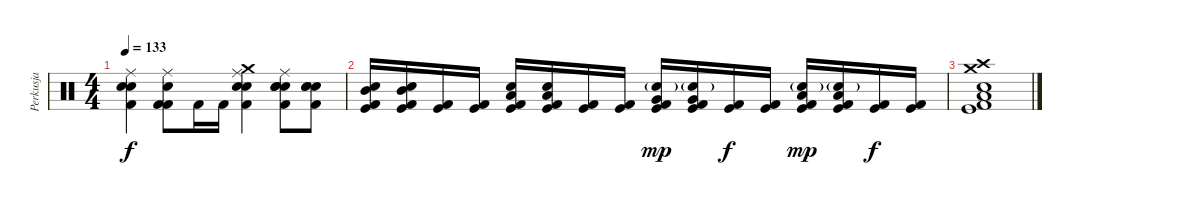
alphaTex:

\track ("Perkusja" "Perkusja") {instrument percussion}
\staff {score}
\articulation defaults
\ts (4 4)
\tempo 133
\clef neutral
\ks c
("Ride (middle)" "Kick (hit) 2" "Electric Snare (hit)" "Electric Snare (hit)").4{dy f} ("Ride (middle)" "Snare (hit) 2" "Kick (hit) 2" "Kick (hit) 2").8 "Kick (hit) 2".16 "Kick (hit) 2".16 ("Ride (middle)" "Crash medium (hit)" "Kick (hit) 2" "Electric Snare (hit)" "Electric Snare (hit)").4 ("Ride (middle)" "Snare (hit) 2" "Electric Snare (hit)" "Kick (hit) 2" "Electric Snare (hit)").8 ("Snare (hit) 2" "Electric Snare (hit)" "Kick (hit) 2" "Electric Snare (hit)").8 |
("Electric Snare (hit)" "Mid Tom (hit)" "Kick (hit) 2" "Kick (hit)").16 ("Electric Snare (hit)" "Mid Tom (hit)" "Kick (hit) 2" "Kick (hit)").16 ("Kick (hit) 2" "Kick (hit)").16 ("Kick (hit) 2" "Kick (hit)").16 ("Electric Snare (hit)" "Low Tom (hit)" "Kick (hit) 2" "Kick (hit)").16 ("Electric Snare (hit)" "Low Tom (hit)" "Kick (hit) 2" "Kick (hit)").16 ("Kick (hit) 2" "Kick (hit)").16 ("Kick (hit) 2" "Kick (hit)").16 ("Electric Snare (hit)"{g} "Very Low Tom (hit)" "Kick (hit) 2" "Kick (hit)").16{dy mp} ("Electric Snare (hit)"{g} "Very Low Tom (hit)" "Kick (hit) 2" "Kick (hit)").16 ("Kick (hit) 2" "Kick (hit)").16{dy f} ("Kick (hit) 2" "Kick (hit)").16 ("Electric Snare (hit)"{g} "Low Floor Tom (hit)" "Kick (hit) 2" "Kick (hit)").16{dy mp} ("Electric Snare (hit)"{g} "Low Floor Tom (hit)" "Kick (hit) 2" "Kick (hit)").16 ("Kick (hit) 2" "Kick (hit)").16{dy f} ("Kick (hit) 2" "Kick (hit)").16 |
("Low Floor Tom (hit)" "Crash medium (hit)" "Crash high (hit)" "Snare (hit) 2" "Kick (hit)" "Kick (hit) 2").1
